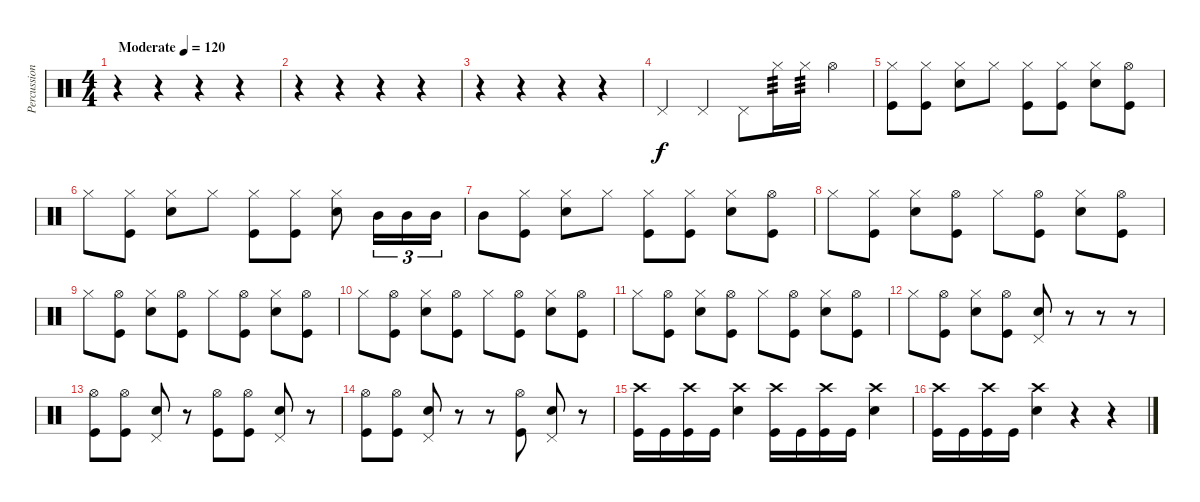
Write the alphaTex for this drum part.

\track ("Percussion" "Percussion") {instrument percussion}
\staff {score}
\articulation defaults
\ts (4 4)
\tempo (120 "Moderate")
\clef neutral
\ks c
r.4{dy f} r.4 r.4 r.4 |
r.4 r.4 r.4 r.4 |
r.4 r.4 r.4 r.4 |
"Pedal Hi-Hat (hit)".4 "Pedal Hi-Hat (hit)".4 "Pedal Hi-Hat (hit)".8 "Hi-Hat (closed)".16{tp 3} "Hi-Hat (closed)".16{tp 3} "Hi-Hat (open)".4 |
("Kick (hit)" "Hi-Hat (closed)").8 ("Hi-Hat (closed)" "Kick (hit)").8 ("Snare (hit) 2" "Hi-Hat (closed)").8 "Hi-Hat (closed)".8 ("Kick (hit)" "Hi-Hat (closed)").8 ("Hi-Hat (closed)" "Kick (hit)").8 ("Hi-Hat (closed)" "Snare (hit) 2").8 ("Hi-Hat (open)" "Kick (hit)").8 |
"Hi-Hat (closed)".8 ("Kick (hit)" "Hi-Hat (closed)").8 ("Hi-Hat (closed)" "Snare (hit) 2").8 "Hi-Hat (closed)".8 ("Hi-Hat (closed)" "Kick (hit)").8 ("Kick (hit)" "Hi-Hat (closed)").8 ("Hi-Hat (closed)" "Snare (hit) 2").8 "Mid Tom (hit)".16{tu (3 2)} "Mid Tom (hit)".16{tu (3 2)} "Mid Tom (hit)".16{tu (3 2)} |
"Mid Tom (hit)".8 ("Kick (hit)" "Hi-Hat (closed)").8 ("Snare (hit) 2" "Hi-Hat (closed)").8 "Hi-Hat (closed)".8 ("Kick (hit)" "Hi-Hat (closed)").8 ("Kick (hit)" "Hi-Hat (closed)").8 ("Snare (hit) 2" "Hi-Hat (closed)").8 ("Hi-Hat (open)" "Kick (hit)").8 |
"Hi-Hat (closed)".8 ("Kick (hit)" "Hi-Hat (closed)").8 ("Snare (hit) 2" "Hi-Hat (closed)").8 ("Hi-Hat (open)" "Kick (hit)").8 "Hi-Hat (closed)".8 ("Hi-Hat (open)" "Kick (hit)").8 ("Hi-Hat (closed)" "Snare (hit) 2").8 ("Hi-Hat (open)" "Kick (hit)").8 |
"Hi-Hat (closed)".8 ("Hi-Hat (open)" "Kick (hit)").8 ("Hi-Hat (closed)" "Snare (hit) 2").8 ("Hi-Hat (open)" "Kick (hit)").8 "Hi-Hat (closed)".8 ("Hi-Hat (open)" "Kick (hit)").8 ("Hi-Hat (closed)" "Snare (hit) 2").8 ("Hi-Hat (open)" "Kick (hit)").8 |
"Hi-Hat (closed)".8 ("Hi-Hat (open)" "Kick (hit)").8 ("Hi-Hat (closed)" "Snare (hit) 2").8 ("Hi-Hat (open)" "Kick (hit)").8 "Hi-Hat (closed)".8 ("Hi-Hat (open)" "Kick (hit)").8 ("Hi-Hat (closed)" "Snare (hit) 2").8 ("Hi-Hat (open)" "Kick (hit)").8 |
"Hi-Hat (closed)".8 ("Hi-Hat (open)" "Kick (hit)").8 ("Hi-Hat (closed)" "Snare (hit) 2").8 ("Hi-Hat (open)" "Kick (hit)").8 "Hi-Hat (closed)".8 ("Hi-Hat (open)" "Kick (hit)").8 ("Hi-Hat (closed)" "Snare (hit) 2").8 ("Hi-Hat (open)" "Kick (hit)").8 |
"Hi-Hat (closed)".8 ("Hi-Hat (open)" "Kick (hit)").8 ("Hi-Hat (closed)" "Snare (hit) 2").8 ("Hi-Hat (open)" "Kick (hit)").8 ("Pedal Hi-Hat (hit)" "Snare (hit) 2").8 r.8 r.8 r.8 |
("Hi-Hat (open)" "Kick (hit)").8 ("Hi-Hat (open)" "Kick (hit)").8 ("Snare (hit) 2" "Pedal Hi-Hat (hit)").8 r.8 ("Hi-Hat (open)" "Kick (hit)").8 ("Hi-Hat (open)" "Kick (hit)").8 ("Snare (hit) 2" "Pedal Hi-Hat (hit)").8 r.8 |
("Hi-Hat (open)" "Kick (hit)").8 ("Hi-Hat (open)" "Kick (hit)").8 ("Snare (hit) 2" "Pedal Hi-Hat (hit)").8 r.8 r.8 ("Hi-Hat (open)" "Kick (hit)").8 ("Snare (hit) 2" "Pedal Hi-Hat (hit)").8 r.8 |
("Kick (hit)" "Crash high (hit)").16 "Kick (hit)".16 ("Kick (hit)" "Crash high (hit)").16 "Kick (hit)".16 ("Snare (hit) 2" "Crash high (hit)").4 ("Kick (hit)" "Crash high (hit)").16 "Kick (hit)".16 ("Kick (hit)" "Crash high (hit)").16 "Kick (hit)".16 ("Snare (hit) 2" "Crash high (hit)").4 |
("Kick (hit)" "Crash high (hit)").16 "Kick (hit)".16 ("Kick (hit)" "Crash high (hit)").16 "Kick (hit)".16 ("Snare (hit) 2" "Crash high (hit)").4 r.4 r.4
